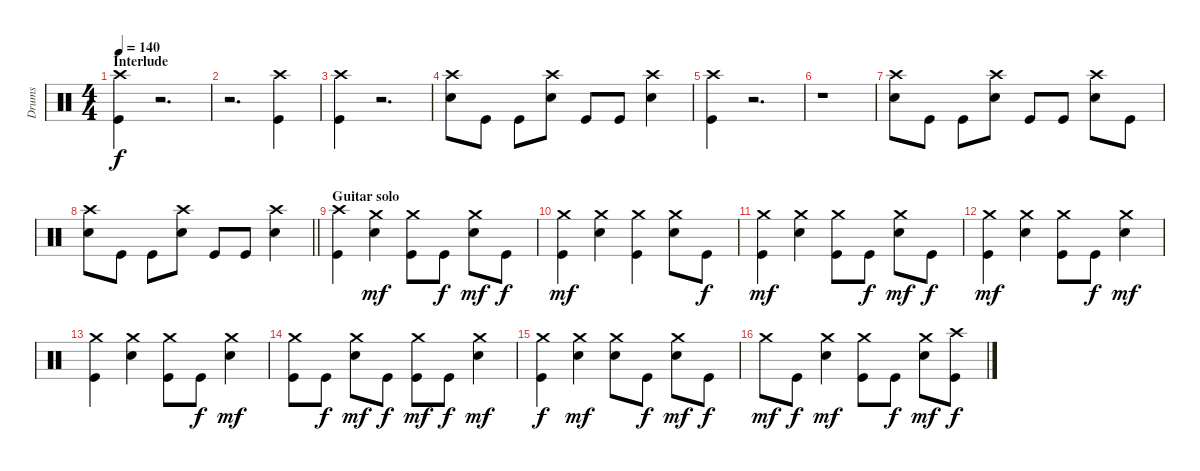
\track ("Drums" "Drums") {instrument percussion}
\staff {score}
\articulation defaults
\ts (4 4)
\section ("" "Interlude")
\tempo 140
\clef neutral
\ks c
("Kick (hit)" "Crash high (hit)").4{dy f} r.2{d} |
r.2{d} ("Kick (hit)" "Crash high (hit)").4 |
("Kick (hit)" "Crash high (hit)").4 r.2{d} |
("Snare (hit) 2" "Crash high (hit)").8 "Kick (hit)".8 "Kick (hit)".8 ("Snare (hit) 2" "Crash high (hit)").8 "Kick (hit)".8 "Kick (hit)".8 ("Snare (hit) 2" "Crash high (hit)").4 |
("Kick (hit)" "Crash high (hit)").4 r.2{d} |
r.1 |
("Snare (hit) 2" "Crash high (hit)").8 "Kick (hit)".8 "Kick (hit)".8 ("Snare (hit) 2" "Crash high (hit)").8 "Kick (hit)".8 "Kick (hit)".8 ("Snare (hit) 2" "Crash high (hit)").8 "Kick (hit)".8 |
\barLineRight lightlight
("Snare (hit) 2" "Crash high (hit)").8 "Kick (hit)".8 "Kick (hit)".8 ("Snare (hit) 2" "Crash high (hit)").8 "Kick (hit)".8 "Kick (hit)".8 ("Snare (hit) 2" "Crash high (hit)").4 |
\section ("" "Guitar solo")
("Kick (hit)" "Crash high (hit)").4 ("Snare (hit) 2" "Crash medium (hit)").4{dy mf} ("Kick (hit)" "Crash medium (hit)").8 "Kick (hit)".8{dy f} ("Snare (hit) 2" "Crash medium (hit)").8{dy mf} "Kick (hit)".8{dy f} |
("Kick (hit)" "Crash medium (hit)").4{dy mf} ("Snare (hit) 2" "Crash medium (hit)").4 ("Kick (hit)" "Crash medium (hit)").4 ("Snare (hit) 2" "Crash medium (hit)").8 "Kick (hit)".8{dy f} |
("Kick (hit)" "Crash medium (hit)").4{dy mf} ("Snare (hit) 2" "Crash medium (hit)").4 ("Kick (hit)" "Crash medium (hit)").8 "Kick (hit)".8{dy f} ("Snare (hit) 2" "Crash medium (hit)").8{dy mf} "Kick (hit)".8{dy f} |
("Kick (hit)" "Crash medium (hit)").4{dy mf} ("Snare (hit) 2" "Crash medium (hit)").4 ("Kick (hit)" "Crash medium (hit)").8 "Kick (hit)".8{dy f} ("Snare (hit) 2" "Crash medium (hit)").4{dy mf} |
("Kick (hit)" "Crash medium (hit)").4 ("Snare (hit) 2" "Crash medium (hit)").4 ("Kick (hit)" "Crash medium (hit)").8 "Kick (hit)".8{dy f} ("Snare (hit) 2" "Crash medium (hit)").4{dy mf} |
("Kick (hit)" "Crash medium (hit)").8 "Kick (hit)".8{dy f} ("Snare (hit) 2" "Crash medium (hit)").8{dy mf} "Kick (hit)".8{dy f} ("Kick (hit)" "Crash medium (hit)").8{dy mf} "Kick (hit)".8{dy f} ("Snare (hit) 2" "Crash medium (hit)").4{dy mf} |
("Kick (hit)" "Crash medium (hit)").4{dy f} ("Snare (hit) 2" "Crash medium (hit)").4{dy mf} ("Snare (hit) 2" "Crash medium (hit)").8 "Kick (hit)".8{dy f} ("Snare (hit) 2" "Crash medium (hit)").8{dy mf} "Kick (hit)".8{dy f} |
"Crash medium (hit)".8{dy mf} "Kick (hit)".8{dy f} ("Snare (hit) 2" "Crash medium (hit)").4{dy mf} ("Kick (hit)" "Crash medium (hit)").8 "Kick (hit)".8{dy f} ("Snare (hit) 2" "Crash medium (hit)").8{dy mf} ("Kick (hit)" "Crash high (hit)").8{dy f}
